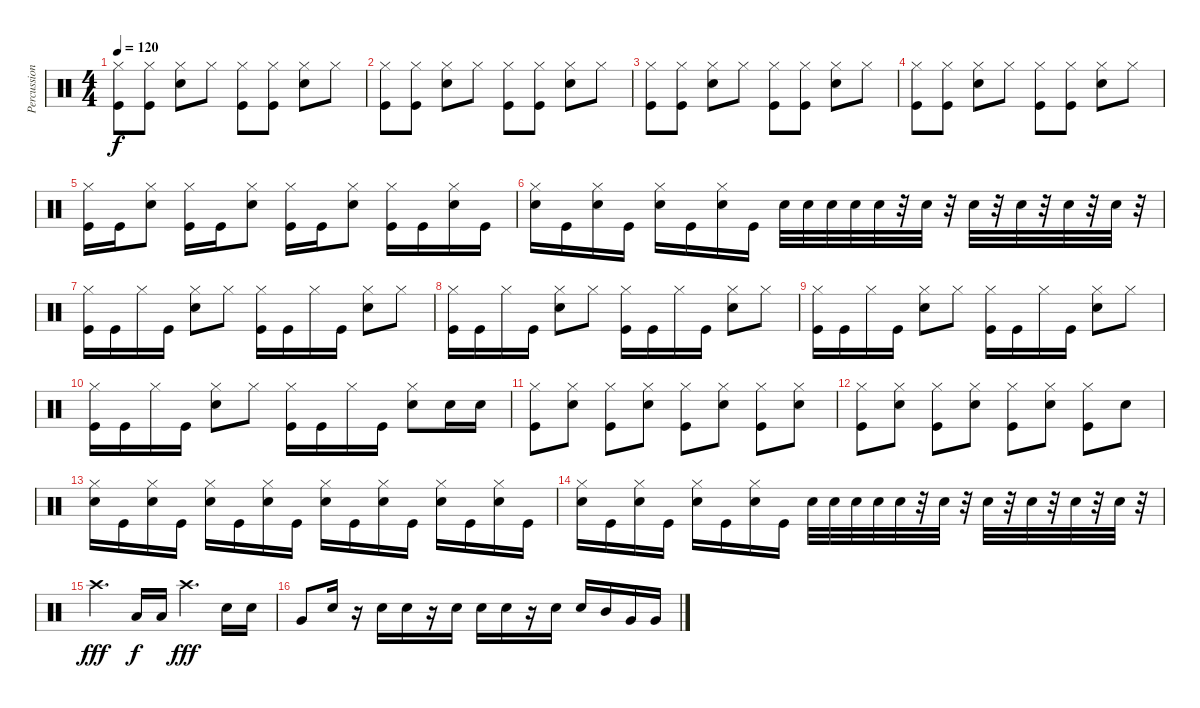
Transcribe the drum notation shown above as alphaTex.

\track ("Percussion" "Percussion") {instrument percussion}
\staff {score}
\articulation defaults
\ts (4 4)
\tempo 120
\clef neutral
\ks c
("Hi-Hat (closed)" "Kick (hit)").8{dy f} ("Kick (hit)" "Hi-Hat (closed)").8 ("Snare (hit) 2" "Hi-Hat (closed)").8 "Hi-Hat (closed)".8 ("Hi-Hat (closed)" "Kick (hit)").8 ("Kick (hit)" "Hi-Hat (closed)").8 ("Snare (hit) 2" "Hi-Hat (closed)").8 "Hi-Hat (closed)".8 |
("Hi-Hat (closed)" "Kick (hit)").8 ("Kick (hit)" "Hi-Hat (closed)").8 ("Snare (hit) 2" "Hi-Hat (closed)").8 "Hi-Hat (closed)".8 ("Hi-Hat (closed)" "Kick (hit)").8 ("Kick (hit)" "Hi-Hat (closed)").8 ("Snare (hit) 2" "Hi-Hat (closed)").8 "Hi-Hat (closed)".8 |
("Hi-Hat (closed)" "Kick (hit)").8 ("Kick (hit)" "Hi-Hat (closed)").8 ("Snare (hit) 2" "Hi-Hat (closed)").8 "Hi-Hat (closed)".8 ("Hi-Hat (closed)" "Kick (hit)").8 ("Kick (hit)" "Hi-Hat (closed)").8 ("Snare (hit) 2" "Hi-Hat (closed)").8 "Hi-Hat (closed)".8 |
("Hi-Hat (closed)" "Kick (hit)").8 ("Kick (hit)" "Hi-Hat (closed)").8 ("Snare (hit) 2" "Hi-Hat (closed)").8 "Hi-Hat (closed)".8 ("Hi-Hat (closed)" "Kick (hit)").8 ("Kick (hit)" "Hi-Hat (closed)").8 ("Snare (hit) 2" "Hi-Hat (closed)").8 "Hi-Hat (closed)".8 |
("Hi-Hat (closed)" "Kick (hit)").16 "Kick (hit)".16 ("Hi-Hat (closed)" "Snare (hit) 2").8 ("Hi-Hat (closed)" "Kick (hit)").16 "Kick (hit)".16 ("Hi-Hat (closed)" "Snare (hit) 2").8 ("Hi-Hat (closed)" "Kick (hit)").16 "Kick (hit)".16 ("Hi-Hat (closed)" "Snare (hit) 2").8 ("Hi-Hat (closed)" "Kick (hit)").16 "Kick (hit)".16 ("Hi-Hat (closed)" "Snare (hit) 2").16 "Kick (hit)".16 |
("Hi-Hat (closed)" "Snare (hit) 2").16 "Kick (hit)".16 ("Hi-Hat (closed)" "Snare (hit) 2").16 "Kick (hit)".16 ("Hi-Hat (closed)" "Snare (hit) 2").16 "Kick (hit)".16 ("Hi-Hat (closed)" "Snare (hit) 2").16 "Kick (hit)".16 "Snare (hit) 2".32 "Snare (hit) 2".32 "Snare (hit) 2".32 "Snare (hit) 2".32 "Snare (hit) 2".32 r.32 "Snare (hit) 2".32 r.32 "Snare (hit) 2".32 r.32 "Snare (hit) 2".32 r.32 "Snare (hit) 2".32 r.32 "Snare (hit) 2".32 r.32 |
("Hi-Hat (closed)" "Kick (hit)").16 "Kick (hit)".16 "Hi-Hat (closed)".16 "Kick (hit)".16 ("Hi-Hat (closed)" "Snare (hit) 2").8 "Hi-Hat (closed)".8 ("Hi-Hat (closed)" "Kick (hit)").16 "Kick (hit)".16 "Hi-Hat (closed)".16 "Kick (hit)".16 ("Hi-Hat (closed)" "Snare (hit) 2").8 "Hi-Hat (closed)".8 |
("Hi-Hat (closed)" "Kick (hit)").16 "Kick (hit)".16 "Hi-Hat (closed)".16 "Kick (hit)".16 ("Hi-Hat (closed)" "Snare (hit) 2").8 "Hi-Hat (closed)".8 ("Hi-Hat (closed)" "Kick (hit)").16 "Kick (hit)".16 "Hi-Hat (closed)".16 "Kick (hit)".16 ("Hi-Hat (closed)" "Snare (hit) 2").8 "Hi-Hat (closed)".8 |
("Hi-Hat (closed)" "Kick (hit)").16 "Kick (hit)".16 "Hi-Hat (closed)".16 "Kick (hit)".16 ("Hi-Hat (closed)" "Snare (hit) 2").8 "Hi-Hat (closed)".8 ("Hi-Hat (closed)" "Kick (hit)").16 "Kick (hit)".16 "Hi-Hat (closed)".16 "Kick (hit)".16 ("Hi-Hat (closed)" "Snare (hit) 2").8 "Hi-Hat (closed)".8 |
("Hi-Hat (closed)" "Kick (hit)").16 "Kick (hit)".16 "Hi-Hat (closed)".16 "Kick (hit)".16 ("Hi-Hat (closed)" "Snare (hit) 2").8 "Hi-Hat (closed)".8 ("Hi-Hat (closed)" "Kick (hit)").16 "Kick (hit)".16 "Hi-Hat (closed)".16 "Kick (hit)".16 ("Hi-Hat (closed)" "Snare (hit) 2").8 "Snare (hit) 2".16 "Snare (hit) 2".16 |
("Hi-Hat (closed)" "Kick (hit)").8 ("Hi-Hat (closed)" "Snare (hit) 2").8 ("Hi-Hat (closed)" "Kick (hit)").8 ("Hi-Hat (closed)" "Snare (hit) 2").8 ("Hi-Hat (closed)" "Kick (hit)").8 ("Hi-Hat (closed)" "Snare (hit) 2").8 ("Hi-Hat (closed)" "Kick (hit)").8 ("Hi-Hat (closed)" "Snare (hit) 2").8 |
("Hi-Hat (closed)" "Kick (hit)").8 ("Hi-Hat (closed)" "Snare (hit) 2").8 ("Hi-Hat (closed)" "Kick (hit)").8 ("Hi-Hat (closed)" "Snare (hit) 2").8 ("Hi-Hat (closed)" "Kick (hit)").8 ("Hi-Hat (closed)" "Snare (hit) 2").8 ("Hi-Hat (closed)" "Kick (hit)").8 "Snare (hit) 2".8 |
("Hi-Hat (closed)" "Snare (hit) 2").16 "Kick (hit)".16 ("Hi-Hat (closed)" "Snare (hit) 2").16 "Kick (hit)".16 ("Hi-Hat (closed)" "Snare (hit) 2").16 "Kick (hit)".16 ("Hi-Hat (closed)" "Snare (hit) 2").16 "Kick (hit)".16 ("Hi-Hat (closed)" "Snare (hit) 2").16 "Kick (hit)".16 ("Hi-Hat (closed)" "Snare (hit) 2").16 "Kick (hit)".16 ("Hi-Hat (closed)" "Snare (hit) 2").16 "Kick (hit)".16 ("Hi-Hat (closed)" "Snare (hit) 2").16 "Kick (hit)".16 |
("Hi-Hat (closed)" "Snare (hit) 2").16 "Kick (hit)".16 ("Hi-Hat (closed)" "Snare (hit) 2").16 "Kick (hit)".16 ("Hi-Hat (closed)" "Snare (hit) 2").16 "Kick (hit)".16 ("Hi-Hat (closed)" "Snare (hit) 2").16 "Kick (hit)".16 "Snare (hit) 2".32 "Snare (hit) 2".32 "Snare (hit) 2".32 "Snare (hit) 2".32 "Snare (hit) 2".32 r.32 "Snare (hit) 2".32 r.32 "Snare (hit) 2".32 r.32 "Snare (hit) 2".32 r.32 "Snare (hit) 2".32 r.32 "Snare (hit) 2".32 r.32 |
"Crash high (hit)".4{d dy fff} "Low Tom (hit)".16{dy f} "Low Tom (hit)".16 "Crash high (hit)".4{d dy fff} "Snare (hit) 2".16 "Snare (hit) 2".16 |
"Very Low Tom (hit)".8 "Snare (hit) 2".16 r.16 "Snare (hit) 2".16 "Snare (hit) 2".16 r.16 "Snare (hit) 2".16 "Snare (hit) 2".16 "Snare (hit) 2".16 r.16 "Snare (hit) 2".16 "Snare (hit) 2".16 "Mid Tom (hit)".16 "Very Low Tom (hit)".16 "Very Low Tom (hit)".16
